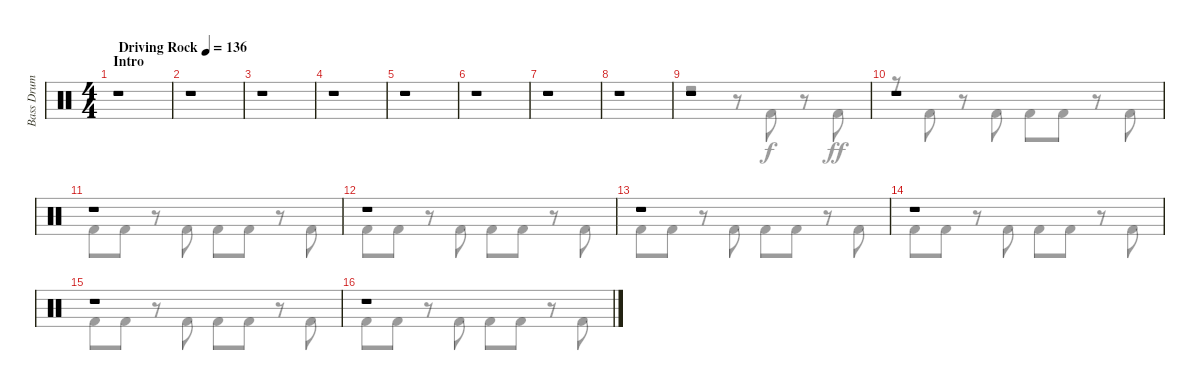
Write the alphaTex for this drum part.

\track ("Bass Drum" "Bass Drum") {instrument percussion}
\staff {score}
\articulation defaults
\voice
\ts (4 4)
\section ("" "Intro")
\tempo (136 "Driving Rock")
\clef neutral
\ks c
r.1{dy f} |
r.1 |
r.1 |
r.1 |
r.1 |
r.1 |
r.1 |
r.1 |
r.1 |
r.1 |
r.1 |
r.1 |
r.1 |
r.1 |
r.1 |
r.1
\voice
\clef neutral
\ottava regular
\simile none
\ks c
|
|
|
|
|
|
|
|
r.2 r.8 "Kick (hit) 2".8 r.8 "Kick (hit) 2".8{dy ff} |
r.8 "Kick (hit) 2".8 r.8 "Kick (hit) 2".8 "Kick (hit) 2".8 "Kick (hit) 2".8 r.8 "Kick (hit) 2".8 |
"Kick (hit) 2".8 "Kick (hit) 2".8 r.8 "Kick (hit) 2".8 "Kick (hit) 2".8 "Kick (hit) 2".8 r.8 "Kick (hit) 2".8 |
"Kick (hit) 2".8 "Kick (hit) 2".8 r.8 "Kick (hit) 2".8 "Kick (hit) 2".8 "Kick (hit) 2".8 r.8 "Kick (hit) 2".8 |
"Kick (hit) 2".8 "Kick (hit) 2".8 r.8 "Kick (hit) 2".8 "Kick (hit) 2".8 "Kick (hit) 2".8 r.8 "Kick (hit) 2".8 |
"Kick (hit) 2".8 "Kick (hit) 2".8 r.8 "Kick (hit) 2".8 "Kick (hit) 2".8 "Kick (hit) 2".8 r.8 "Kick (hit) 2".8 |
"Kick (hit) 2".8 "Kick (hit) 2".8 r.8 "Kick (hit) 2".8 "Kick (hit) 2".8 "Kick (hit) 2".8 r.8 "Kick (hit) 2".8 |
"Kick (hit) 2".8 "Kick (hit) 2".8 r.8 "Kick (hit) 2".8 "Kick (hit) 2".8 "Kick (hit) 2".8 r.8 "Kick (hit) 2".8
